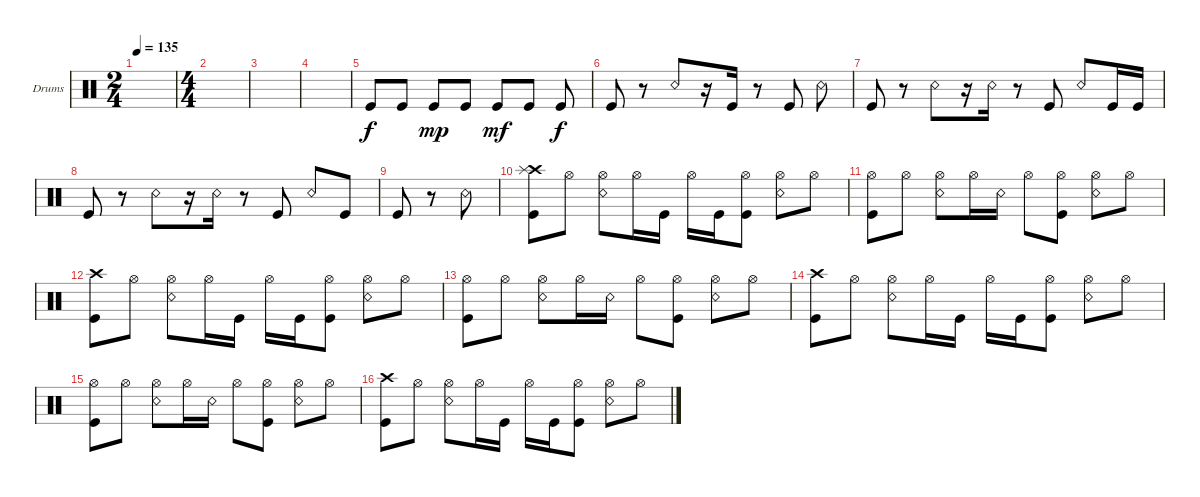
\defaultSystemsLayout 4
\bracketExtendMode groupsimilarinstruments
\firstSystemTrackNameOrientation horizontal
\otherSystemsTrackNameOrientation horizontal
\track ("Drumkit" "Drums") {instrument percussion}
\staff {score}
\articulation defaults
\ts (2 4)
\tempo 135
\clef neutral
\scale
0.390805
\ks c
|
\ts (4 4)
\scale
0.390805 |
\scale
0.218391 |
\scale
0.333333 |
\scale
0.333333 "Kick (hit)".8 "Kick (hit)".8 "Kick (hit)".8{dy mp} "Kick (hit)".8 "Kick (hit)".8{dy mf} "Kick (hit)".8 "Kick (hit)".8{dy f} |
\scale
0.333333 "Kick (hit)".8 r.8 "Snare (rim shot)".8 r.16 "Kick (hit)".16 r.8 "Kick (hit)".8 "Snare (rim shot)".8 |
\scale
0.333333 "Kick (hit)".8 r.8 "Snare (rim shot)".8 r.16 "Snare (rim shot)".16 r.8 "Kick (hit)".8 "Snare (rim shot)".8 "Kick (hit)".16 "Kick (hit)".16 |
\scale
0.333333 "Kick (hit)".8 r.8 "Snare (rim shot)".8 r.16 "Snare (rim shot)".16 r.8 "Kick (hit)".8 "Snare (rim shot)".8 "Kick (hit)".8 |
\scale
0.333333 "Kick (hit)".8 r.8 "Snare (rim shot)".8 |
\scale
0.333333 ("Kick (hit)" "Crash high (hit)" "Splash (hit)").8 "Hi-Hat (open)".8 ("Snare (rim shot)" "Hi-Hat (open)").8 "Hi-Hat (open)".16 "Kick (hit)".16 "Hi-Hat (open)".16 "Kick (hit)".16 ("Kick (hit)" "Hi-Hat (open)").8 ("Snare (rim shot)" "Hi-Hat (open)").8 "Hi-Hat (open)".8 |
\scale
0.333333 ("Kick (hit)" "Hi-Hat (open)").8 "Hi-Hat (open)".8 ("Snare (rim shot)" "Hi-Hat (open)").8 "Hi-Hat (open)".16 "Snare (rim shot)".16 "Hi-Hat (open)".8 ("Hi-Hat (open)" "Kick (hit)").8 ("Snare (rim shot)" "Hi-Hat (open)").8 "Hi-Hat (open)".8 |
\scale
0.333333 ("Kick (hit)" "Crash high (hit)").8 "Hi-Hat (open)".8 ("Snare (rim shot)" "Hi-Hat (open)").8 "Hi-Hat (open)".16 "Kick (hit)".16 "Hi-Hat (open)".16 "Kick (hit)".16 ("Kick (hit)" "Hi-Hat (open)").8 ("Snare (rim shot)" "Hi-Hat (open)").8 "Hi-Hat (open)".8 |
\scale
0.333333 ("Kick (hit)" "Hi-Hat (open)").8 "Hi-Hat (open)".8 ("Snare (rim shot)" "Hi-Hat (open)").8 "Hi-Hat (open)".16 "Snare (rim shot)".16 "Hi-Hat (open)".8 ("Hi-Hat (open)" "Kick (hit)").8 ("Snare (rim shot)" "Hi-Hat (open)").8 "Hi-Hat (open)".8 |
\scale
0.333333 ("Kick (hit)" "Crash high (hit)").8 "Hi-Hat (open)".8 ("Snare (rim shot)" "Hi-Hat (open)").8 "Hi-Hat (open)".16 "Kick (hit)".16 "Hi-Hat (open)".16 "Kick (hit)".16 ("Kick (hit)" "Hi-Hat (open)").8 ("Snare (rim shot)" "Hi-Hat (open)").8 "Hi-Hat (open)".8 |
\scale
0.333333 ("Kick (hit)" "Hi-Hat (open)").8 "Hi-Hat (open)".8 ("Snare (rim shot)" "Hi-Hat (open)").8 "Hi-Hat (open)".16 "Snare (rim shot)".16 "Hi-Hat (open)".8 ("Hi-Hat (open)" "Kick (hit)").8 ("Snare (rim shot)" "Hi-Hat (open)").8 "Hi-Hat (open)".8 |
\scale
0.333333 ("Kick (hit)" "Crash high (hit)").8 "Hi-Hat (open)".8 ("Snare (rim shot)" "Hi-Hat (open)").8 "Hi-Hat (open)".16 "Kick (hit)".16 "Hi-Hat (open)".16 "Kick (hit)".16 ("Kick (hit)" "Hi-Hat (open)").8 ("Snare (rim shot)" "Hi-Hat (open)").8 "Hi-Hat (open)".8
